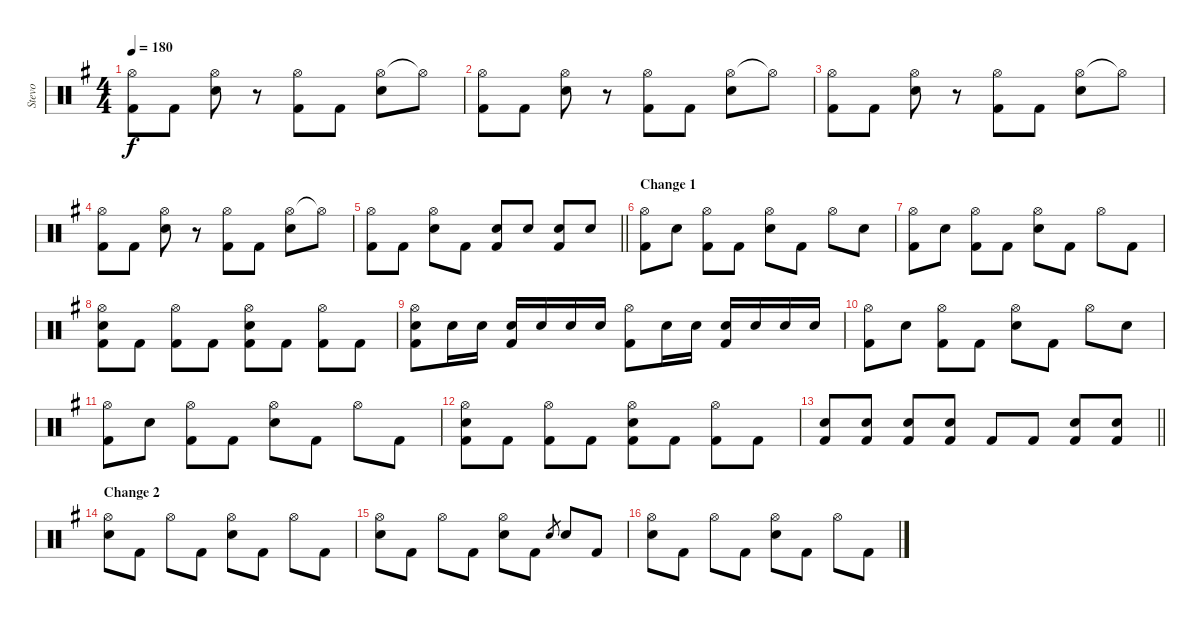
\track ("Stevo" "Stevo") {instrument percussion}
\staff {score}
\articulation defaults
\ts (4 4)
\tempo 180
\clef neutral
\ks g
("Hi-Hat (open)" "Kick (hit) 2").8{dy f} "Kick (hit) 2".8 ("Hi-Hat (open)" "Snare (hit) 2").8 r.8 ("Hi-Hat (open)" "Kick (hit) 2").8 "Kick (hit) 2".8 ("Hi-Hat (open)" "Snare (hit) 2").8 "Hi-Hat (open)"{t}.8 |
("Hi-Hat (open)" "Kick (hit) 2").8 "Kick (hit) 2".8 ("Hi-Hat (open)" "Snare (hit) 2").8 r.8 ("Hi-Hat (open)" "Kick (hit) 2").8 "Kick (hit) 2".8 ("Hi-Hat (open)" "Snare (hit) 2").8 "Hi-Hat (open)"{t}.8 |
("Hi-Hat (open)" "Kick (hit) 2").8 "Kick (hit) 2".8 ("Hi-Hat (open)" "Snare (hit) 2").8 r.8 ("Hi-Hat (open)" "Kick (hit) 2").8 "Kick (hit) 2".8 ("Hi-Hat (open)" "Snare (hit) 2").8 "Hi-Hat (open)"{t}.8 |
("Hi-Hat (open)" "Kick (hit) 2").8 "Kick (hit) 2".8 ("Hi-Hat (open)" "Snare (hit) 2").8 r.8 ("Hi-Hat (open)" "Kick (hit) 2").8 "Kick (hit) 2".8 ("Hi-Hat (open)" "Snare (hit) 2").8 "Hi-Hat (open)"{t}.8 |
\barLineRight lightlight
("Hi-Hat (open)" "Kick (hit) 2").8 "Kick (hit) 2".8 ("Hi-Hat (open)" "Snare (hit) 2").8 "Kick (hit) 2".8 ("Snare (hit) 2" "Kick (hit) 2").8 "Snare (hit) 2".8 ("Snare (hit) 2" "Kick (hit) 2").8 "Snare (hit) 2".8 |
\section ("" "Change 1")
("Hi-Hat (open)" "Kick (hit) 2").8 "Snare (hit) 2".8 ("Hi-Hat (open)" "Kick (hit) 2").8 "Kick (hit) 2".8 ("Hi-Hat (open)" "Snare (hit) 2").8 "Kick (hit) 2".8 "Hi-Hat (open)".8 "Snare (hit) 2".8 |
("Hi-Hat (open)" "Kick (hit) 2").8 "Snare (hit) 2".8 ("Hi-Hat (open)" "Kick (hit) 2").8 "Kick (hit) 2".8 ("Hi-Hat (open)" "Snare (hit) 2").8 "Kick (hit) 2".8 "Hi-Hat (open)".8 "Kick (hit) 2".8 |
("Hi-Hat (open)" "Snare (hit) 2" "Kick (hit) 2").8 "Kick (hit) 2".8 ("Hi-Hat (open)" "Kick (hit) 2").8 "Kick (hit) 2".8 ("Hi-Hat (open)" "Snare (hit) 2" "Kick (hit) 2").8 "Kick (hit) 2".8 ("Hi-Hat (open)" "Kick (hit) 2").8 "Kick (hit) 2".8 |
("Hi-Hat (open)" "Snare (hit) 2" "Kick (hit) 2").8 "Snare (hit) 2".16 "Snare (hit) 2".16 ("Snare (hit) 2" "Kick (hit) 2").16 "Snare (hit) 2".16 "Snare (hit) 2".16 "Snare (hit) 2".16 ("Hi-Hat (open)" "Kick (hit) 2").8 "Snare (hit) 2".16 "Snare (hit) 2".16 ("Snare (hit) 2" "Kick (hit) 2").16 "Snare (hit) 2".16 "Snare (hit) 2".16 "Snare (hit) 2".16 |
("Hi-Hat (open)" "Kick (hit) 2").8 "Snare (hit) 2".8 ("Hi-Hat (open)" "Kick (hit) 2").8 "Kick (hit) 2".8 ("Hi-Hat (open)" "Snare (hit) 2").8 "Kick (hit) 2".8 "Hi-Hat (open)".8 "Snare (hit) 2".8 |
("Hi-Hat (open)" "Kick (hit) 2").8 "Snare (hit) 2".8 ("Hi-Hat (open)" "Kick (hit) 2").8 "Kick (hit) 2".8 ("Hi-Hat (open)" "Snare (hit) 2").8 "Kick (hit) 2".8 "Hi-Hat (open)".8 "Kick (hit) 2".8 |
("Hi-Hat (open)" "Snare (hit) 2" "Kick (hit) 2").8 "Kick (hit) 2".8 ("Hi-Hat (open)" "Kick (hit) 2").8 "Kick (hit) 2".8 ("Hi-Hat (open)" "Snare (hit) 2" "Kick (hit) 2").8 "Kick (hit) 2".8 ("Hi-Hat (open)" "Kick (hit) 2").8 "Kick (hit) 2".8 |
\barLineRight lightlight
("Snare (hit) 2" "Kick (hit) 2").8 ("Snare (hit) 2" "Kick (hit) 2").8 ("Snare (hit) 2" "Kick (hit) 2").8 ("Snare (hit) 2" "Kick (hit) 2").8 "Kick (hit) 2".8 "Kick (hit) 2".8 ("Snare (hit) 2" "Kick (hit) 2").8 ("Snare (hit) 2" "Kick (hit) 2").8 |
\section ("" "Change 2")
("Hi-Hat (open)" "Snare (hit) 2").8 "Kick (hit) 2".8 "Hi-Hat (open)".8 "Kick (hit) 2".8 ("Hi-Hat (open)" "Snare (hit) 2").8 "Kick (hit) 2".8 "Hi-Hat (open)".8 "Kick (hit) 2".8 |
("Hi-Hat (open)" "Snare (hit) 2").8 "Kick (hit) 2".8 "Hi-Hat (open)".8 "Kick (hit) 2".8 ("Hi-Hat (open)" "Snare (hit) 2").8 "Kick (hit) 2".8 "Snare (hit) 2".8{gr} "Snare (hit) 2".8 "Kick (hit) 2".8 |
("Hi-Hat (open)" "Snare (hit) 2").8 "Kick (hit) 2".8 "Hi-Hat (open)".8 "Kick (hit) 2".8 ("Hi-Hat (open)" "Snare (hit) 2").8 "Kick (hit) 2".8 "Hi-Hat (open)".8 "Kick (hit) 2".8
